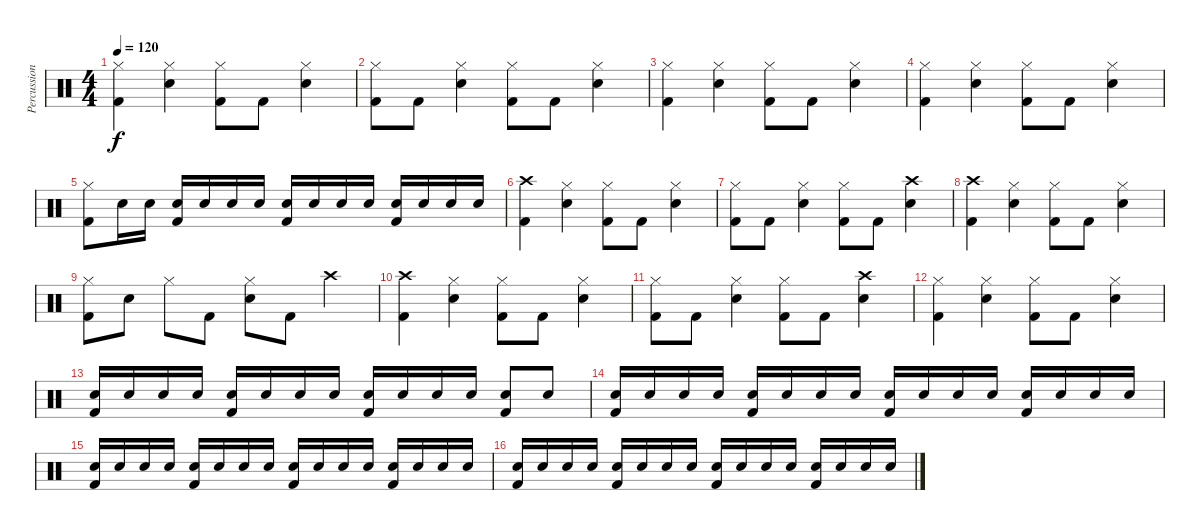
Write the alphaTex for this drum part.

\track ("Percussion" "Percussion") {instrument percussion}
\staff {score}
\articulation defaults
\ts (4 4)
\tempo 120
\clef neutral
\ks c
("Hi-Hat (closed)" "Kick (hit) 2").4{dy f} ("Hi-Hat (closed)" "Snare (hit) 2").4 ("Hi-Hat (closed)" "Kick (hit) 2").8 "Kick (hit) 2".8 ("Hi-Hat (closed)" "Snare (hit) 2").4 |
("Hi-Hat (closed)" "Kick (hit) 2").8 "Kick (hit) 2".8 ("Hi-Hat (closed)" "Snare (hit) 2").4 ("Hi-Hat (closed)" "Kick (hit) 2").8 "Kick (hit) 2".8 ("Hi-Hat (closed)" "Snare (hit) 2").4 |
("Hi-Hat (closed)" "Kick (hit) 2").4 ("Hi-Hat (closed)" "Snare (hit) 2").4 ("Hi-Hat (closed)" "Kick (hit) 2").8 "Kick (hit) 2".8 ("Hi-Hat (closed)" "Snare (hit) 2").4 |
("Hi-Hat (closed)" "Kick (hit) 2").4 ("Hi-Hat (closed)" "Snare (hit) 2").4 ("Hi-Hat (closed)" "Kick (hit) 2").8 "Kick (hit) 2".8 ("Hi-Hat (closed)" "Snare (hit) 2").4 |
("Hi-Hat (closed)" "Kick (hit) 2").8 "Snare (hit) 2".16 "Snare (hit) 2".16 ("Snare (hit) 2" "Kick (hit) 2").16 "Snare (hit) 2".16 "Snare (hit) 2".16 "Snare (hit) 2".16 ("Snare (hit) 2" "Kick (hit) 2").16 "Snare (hit) 2".16 "Snare (hit) 2".16 "Snare (hit) 2".16 ("Snare (hit) 2" "Kick (hit) 2").16 "Snare (hit) 2".16 "Snare (hit) 2".16 "Snare (hit) 2".16 |
("Crash high (hit)" "Kick (hit) 2").4 ("Hi-Hat (closed)" "Snare (hit) 2").4 ("Hi-Hat (closed)" "Kick (hit) 2").8 "Kick (hit) 2".8 ("Hi-Hat (closed)" "Snare (hit) 2").4 |
("Hi-Hat (closed)" "Kick (hit) 2").8 "Kick (hit) 2".8 ("Hi-Hat (closed)" "Snare (hit) 2").4 ("Hi-Hat (closed)" "Kick (hit) 2").8 "Kick (hit) 2".8 ("Crash high (hit)" "Snare (hit) 2").4 |
("Crash high (hit)" "Kick (hit) 2").4 ("Hi-Hat (closed)" "Snare (hit) 2").4 ("Hi-Hat (closed)" "Kick (hit) 2").8 "Kick (hit) 2".8 ("Hi-Hat (closed)" "Snare (hit) 2").4 |
("Hi-Hat (closed)" "Kick (hit) 2").8 "Snare (hit) 2".8 "Hi-Hat (closed)".8 "Kick (hit) 2".8 ("Hi-Hat (closed)" "Snare (hit) 2").8 "Kick (hit) 2".8 "Crash high (hit)".4 |
("Crash high (hit)" "Kick (hit) 2").4 ("Hi-Hat (closed)" "Snare (hit) 2").4 ("Hi-Hat (closed)" "Kick (hit) 2").8 "Kick (hit) 2".8 ("Hi-Hat (closed)" "Snare (hit) 2").4 |
("Hi-Hat (closed)" "Kick (hit) 2").8 "Kick (hit) 2".8 ("Hi-Hat (closed)" "Snare (hit) 2").4 ("Hi-Hat (closed)" "Kick (hit) 2").8 "Kick (hit) 2".8 ("Crash high (hit)" "Snare (hit) 2").4 |
("Hi-Hat (closed)" "Kick (hit) 2").4 ("Hi-Hat (closed)" "Snare (hit) 2").4 ("Hi-Hat (closed)" "Kick (hit) 2").8 "Kick (hit) 2".8 ("Hi-Hat (closed)" "Snare (hit) 2").4 |
("Snare (hit) 2" "Kick (hit) 2").16 "Snare (hit) 2".16 "Snare (hit) 2".16 "Snare (hit) 2".16 ("Snare (hit) 2" "Kick (hit) 2").16 "Snare (hit) 2".16 "Snare (hit) 2".16 "Snare (hit) 2".16 ("Snare (hit) 2" "Kick (hit) 2").16 "Snare (hit) 2".16 "Snare (hit) 2".16 "Snare (hit) 2".16 ("Snare (hit) 2" "Kick (hit) 2").8 "Snare (hit) 2".8 |
("Snare (hit) 2" "Kick (hit) 2").16 "Snare (hit) 2".16 "Snare (hit) 2".16 "Snare (hit) 2".16 ("Snare (hit) 2" "Kick (hit) 2").16 "Snare (hit) 2".16 "Snare (hit) 2".16 "Snare (hit) 2".16 ("Snare (hit) 2" "Kick (hit) 2").16 "Snare (hit) 2".16 "Snare (hit) 2".16 "Snare (hit) 2".16 ("Snare (hit) 2" "Kick (hit) 2").16 "Snare (hit) 2".16 "Snare (hit) 2".16 "Snare (hit) 2".16 |
("Snare (hit) 2" "Kick (hit) 2").16 "Snare (hit) 2".16 "Snare (hit) 2".16 "Snare (hit) 2".16 ("Snare (hit) 2" "Kick (hit) 2").16 "Snare (hit) 2".16 "Snare (hit) 2".16 "Snare (hit) 2".16 ("Snare (hit) 2" "Kick (hit) 2").16 "Snare (hit) 2".16 "Snare (hit) 2".16 "Snare (hit) 2".16 ("Snare (hit) 2" "Kick (hit) 2").16 "Snare (hit) 2".16 "Snare (hit) 2".16 "Snare (hit) 2".16 |
("Snare (hit) 2" "Kick (hit) 2").16 "Snare (hit) 2".16 "Snare (hit) 2".16 "Snare (hit) 2".16 ("Snare (hit) 2" "Kick (hit) 2").16 "Snare (hit) 2".16 "Snare (hit) 2".16 "Snare (hit) 2".16 ("Snare (hit) 2" "Kick (hit) 2").16 "Snare (hit) 2".16 "Snare (hit) 2".16 "Snare (hit) 2".16 ("Snare (hit) 2" "Kick (hit) 2").16 "Snare (hit) 2".16 "Snare (hit) 2".16 "Snare (hit) 2".16
